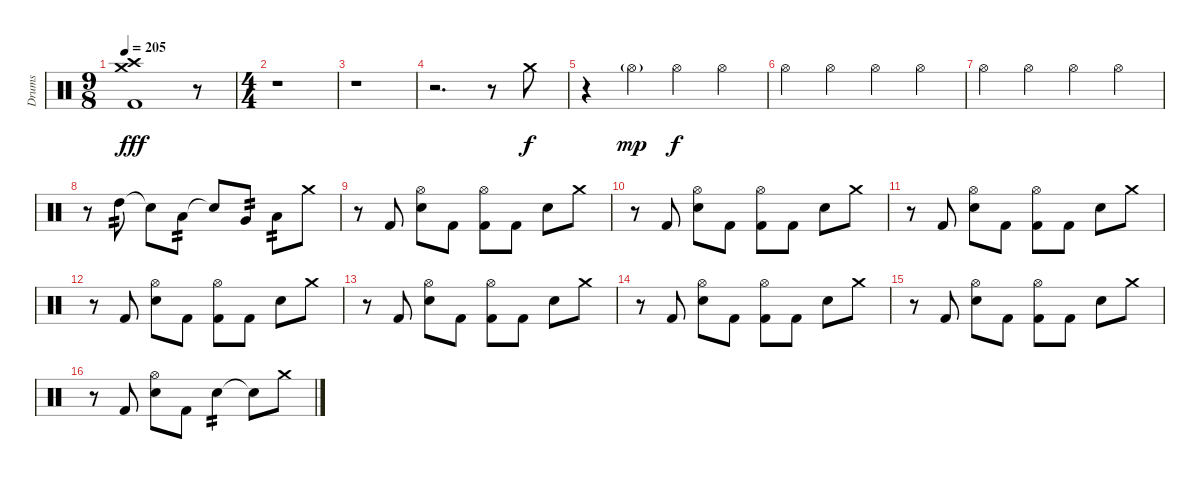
\track ("Drums" "Drums") {instrument percussion}
\staff {score}
\articulation defaults
\ts (9 8)
\tempo 205
\clef neutral
\ks c
("Crash medium (hit)" "Crash high (hit)" "Kick (hit) 2").1{dy fff} r.8 |
\ts (4 4)
r.1 |
r.1 |
r.2{d} r.8 "Crash medium (hit)".8{dy f} |
r.4 "Hi-Hat (open)"{g}.4{dy mp} "Hi-Hat (open)".4{dy f} "Hi-Hat (open)".4 |
"Hi-Hat (open)".4 "Hi-Hat (open)".4 "Hi-Hat (open)".4 "Hi-Hat (open)".4 |
"Hi-Hat (open)".4 "Hi-Hat (open)".4 "Hi-Hat (open)".4 "Hi-Hat (open)".4 |
r.8 "High Tom (hit)".8{tp 2} "Snare (hit)"{t}.8 "Low Tom (hit)".8{tp 2} "Snare (hit)"{t}.8 "Very Low Tom (hit)".8{tp 2} "Low Floor Tom (hit)".8{tp 2} "Crash medium (hit)".8 |
r.8 "Kick (hit) 2".8 ("Hi-Hat (open)" "Electric Snare (hit)").8 "Kick (hit) 2".8 ("Hi-Hat (open)" "Kick (hit) 2").8 "Kick (hit) 2".8 "Electric Snare (hit)".8 "Crash medium (hit)".8 |
r.8 "Kick (hit) 2".8 ("Hi-Hat (open)" "Electric Snare (hit)").8 "Kick (hit) 2".8 ("Hi-Hat (open)" "Kick (hit) 2").8 "Kick (hit) 2".8 "Electric Snare (hit)".8 "Crash medium (hit)".8 |
r.8 "Kick (hit) 2".8 ("Hi-Hat (open)" "Electric Snare (hit)").8 "Kick (hit) 2".8 ("Hi-Hat (open)" "Kick (hit) 2").8 "Kick (hit) 2".8 "Electric Snare (hit)".8 "Crash medium (hit)".8 |
r.8 "Kick (hit) 2".8 ("Hi-Hat (open)" "Electric Snare (hit)").8 "Kick (hit) 2".8 ("Hi-Hat (open)" "Kick (hit) 2").8 "Kick (hit) 2".8 "Electric Snare (hit)".8 "Crash medium (hit)".8 |
r.8 "Kick (hit) 2".8 ("Hi-Hat (open)" "Electric Snare (hit)").8 "Kick (hit) 2".8 ("Hi-Hat (open)" "Kick (hit) 2").8 "Kick (hit) 2".8 "Electric Snare (hit)".8 "Crash medium (hit)".8 |
r.8 "Kick (hit) 2".8 ("Hi-Hat (open)" "Electric Snare (hit)").8 "Kick (hit) 2".8 ("Hi-Hat (open)" "Kick (hit) 2").8 "Kick (hit) 2".8 "Electric Snare (hit)".8 "Crash medium (hit)".8 |
r.8 "Kick (hit) 2".8 ("Hi-Hat (open)" "Electric Snare (hit)").8 "Kick (hit) 2".8 ("Hi-Hat (open)" "Kick (hit) 2").8 "Kick (hit) 2".8 "Electric Snare (hit)".8 "Crash medium (hit)".8 |
r.8 "Kick (hit) 2".8 ("Hi-Hat (open)" "Electric Snare (hit)").8 "Kick (hit) 2".8 "Electric Snare (hit)".4{tp 2} "Snare (hit)"{t}.8 "Crash medium (hit)".8
